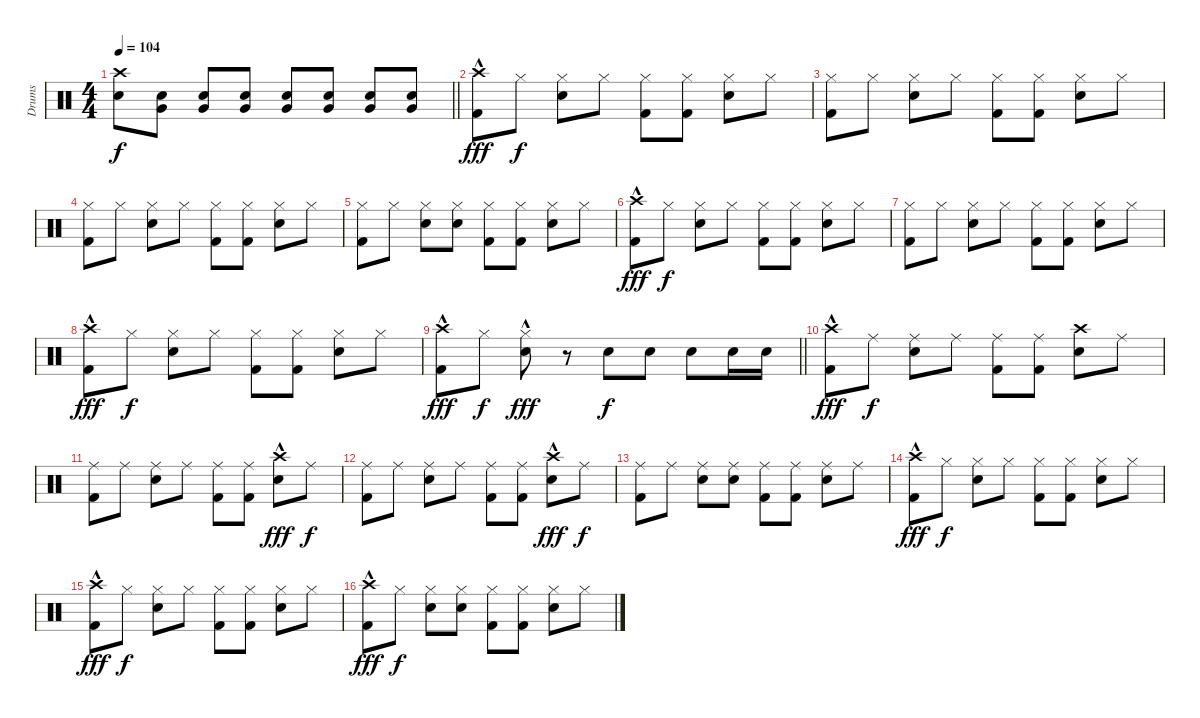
\track ("Drums" "Drums") {instrument percussion}
\staff {score}
\articulation defaults
\ts (4 4)
\tempo 104
\clef neutral
\barLineRight lightlight
\ks c
("Crash high (hit)" "Snare (hit) 2").8{dy f} ("Snare (hit) 2" "Very Low Tom (hit)").8 ("Snare (hit) 2" "Very Low Tom (hit)").8 ("Snare (hit) 2" "Very Low Tom (hit)").8 ("Snare (hit) 2" "Very Low Tom (hit)").8 ("Snare (hit) 2" "Very Low Tom (hit)").8 ("Snare (hit) 2" "Very Low Tom (hit)").8 ("Snare (hit) 2" "Very Low Tom (hit)").8 |
("Crash high (hit)"{hac} "Kick (hit) 2").8{dy fff} "Hi-Hat (closed)".8{dy f} ("Hi-Hat (closed)" "Snare (hit) 2").8 "Hi-Hat (closed)".8 ("Hi-Hat (closed)" "Kick (hit) 2").8 ("Hi-Hat (closed)" "Kick (hit) 2").8 ("Hi-Hat (closed)" "Snare (hit) 2").8 "Hi-Hat (closed)".8 |
("Hi-Hat (closed)" "Kick (hit) 2").8 "Hi-Hat (closed)".8 ("Hi-Hat (closed)" "Snare (hit) 2").8 "Hi-Hat (closed)".8 ("Hi-Hat (closed)" "Kick (hit) 2").8 ("Hi-Hat (closed)" "Kick (hit) 2").8 ("Hi-Hat (closed)" "Snare (hit) 2").8 "Hi-Hat (closed)".8 |
("Hi-Hat (closed)" "Kick (hit) 2").8 "Hi-Hat (closed)".8 ("Hi-Hat (closed)" "Snare (hit) 2").8 "Hi-Hat (closed)".8 ("Hi-Hat (closed)" "Kick (hit) 2").8 ("Hi-Hat (closed)" "Kick (hit) 2").8 ("Hi-Hat (closed)" "Snare (hit) 2").8 "Hi-Hat (closed)".8 |
("Hi-Hat (closed)" "Kick (hit) 2").8 "Hi-Hat (closed)".8 ("Hi-Hat (closed)" "Snare (hit) 2").8 ("Hi-Hat (closed)" "Snare (hit) 2").8 ("Hi-Hat (closed)" "Kick (hit) 2").8 ("Hi-Hat (closed)" "Kick (hit) 2").8 ("Hi-Hat (closed)" "Snare (hit) 2").8 "Hi-Hat (closed)".8 |
("Crash high (hit)"{hac} "Kick (hit) 2").8{dy fff} "Hi-Hat (closed)".8{dy f} ("Hi-Hat (closed)" "Snare (hit) 2").8 "Hi-Hat (closed)".8 ("Hi-Hat (closed)" "Kick (hit) 2").8 ("Hi-Hat (closed)" "Kick (hit) 2").8 ("Hi-Hat (closed)" "Snare (hit) 2").8 "Hi-Hat (closed)".8 |
("Hi-Hat (closed)" "Kick (hit) 2").8 "Hi-Hat (closed)".8 ("Hi-Hat (closed)" "Snare (hit) 2").8 "Hi-Hat (closed)".8 ("Hi-Hat (closed)" "Kick (hit) 2").8 ("Hi-Hat (closed)" "Kick (hit) 2").8 ("Hi-Hat (closed)" "Snare (hit) 2").8 "Hi-Hat (closed)".8 |
("Crash high (hit)"{hac} "Kick (hit) 2").8{dy fff} "Hi-Hat (closed)".8{dy f} ("Hi-Hat (closed)" "Snare (hit) 2").8 "Hi-Hat (closed)".8 ("Hi-Hat (closed)" "Kick (hit) 2").8 ("Hi-Hat (closed)" "Kick (hit) 2").8 ("Hi-Hat (closed)" "Snare (hit) 2").8 "Hi-Hat (closed)".8 |
\barLineRight lightlight
("Crash high (hit)"{hac} "Kick (hit) 2").8{dy fff} "Hi-Hat (closed)".8{dy f} ("Hi-Hat (closed)"{hac} "Snare (hit) 2").8{dy fff} r.8 "Snare (hit) 2".8{dy f} "Snare (hit) 2".8 "Snare (hit) 2".8 "Snare (hit) 2".16 "Snare (hit) 2".16 |
("Crash high (hit)"{hac} "Kick (hit) 2").8{dy fff} "Ride (middle)".8{dy f} ("Ride (middle)" "Snare (hit) 2").8 "Ride (middle)".8 ("Ride (middle)" "Kick (hit) 2").8 ("Ride (middle)" "Kick (hit) 2").8 ("Crash high (hit)" "Snare (hit) 2").8 "Ride (middle)".8 |
("Ride (middle)" "Kick (hit) 2").8 "Ride (middle)".8 ("Ride (middle)" "Snare (hit) 2").8 "Ride (middle)".8 ("Ride (middle)" "Kick (hit) 2").8 ("Ride (middle)" "Kick (hit) 2").8 ("Crash high (hit)"{hac} "Snare (hit) 2").8{dy fff} "Ride (middle)".8{dy f} |
("Ride (middle)" "Kick (hit) 2").8 "Ride (middle)".8 ("Ride (middle)" "Snare (hit) 2").8 "Ride (middle)".8 ("Ride (middle)" "Kick (hit) 2").8 ("Ride (middle)" "Kick (hit) 2").8 ("Crash high (hit)"{hac} "Snare (hit) 2").8{dy fff} "Ride (middle)".8{dy f} |
("Ride (middle)" "Kick (hit) 2").8 "Ride (middle)".8 ("Ride (middle)" "Snare (hit) 2").8 ("Ride (middle)" "Snare (hit) 2").8 ("Ride (middle)" "Kick (hit) 2").8 ("Ride (middle)" "Kick (hit) 2").8 ("Ride (middle)" "Snare (hit) 2").8 "Ride (middle)".8 |
("Crash high (hit)"{hac} "Kick (hit) 2").8{dy fff} "Hi-Hat (closed)".8{dy f} ("Hi-Hat (closed)" "Snare (hit) 2").8 "Hi-Hat (closed)".8 ("Hi-Hat (closed)" "Kick (hit) 2").8 ("Hi-Hat (closed)" "Kick (hit) 2").8 ("Hi-Hat (closed)" "Snare (hit) 2").8 "Hi-Hat (closed)".8 |
("Crash high (hit)"{hac} "Kick (hit) 2").8{dy fff} "Hi-Hat (closed)".8{dy f} ("Hi-Hat (closed)" "Snare (hit) 2").8 "Hi-Hat (closed)".8 ("Hi-Hat (closed)" "Kick (hit) 2").8 ("Hi-Hat (closed)" "Kick (hit) 2").8 ("Hi-Hat (closed)" "Snare (hit) 2").8 "Hi-Hat (closed)".8 |
("Crash high (hit)"{hac} "Kick (hit) 2").8{dy fff} "Hi-Hat (closed)".8{dy f} ("Hi-Hat (closed)" "Snare (hit) 2").8 ("Hi-Hat (closed)" "Snare (hit) 2").8 ("Hi-Hat (closed)" "Kick (hit) 2").8 ("Hi-Hat (closed)" "Kick (hit) 2").8 ("Hi-Hat (closed)" "Snare (hit) 2").8 "Hi-Hat (closed)".8
